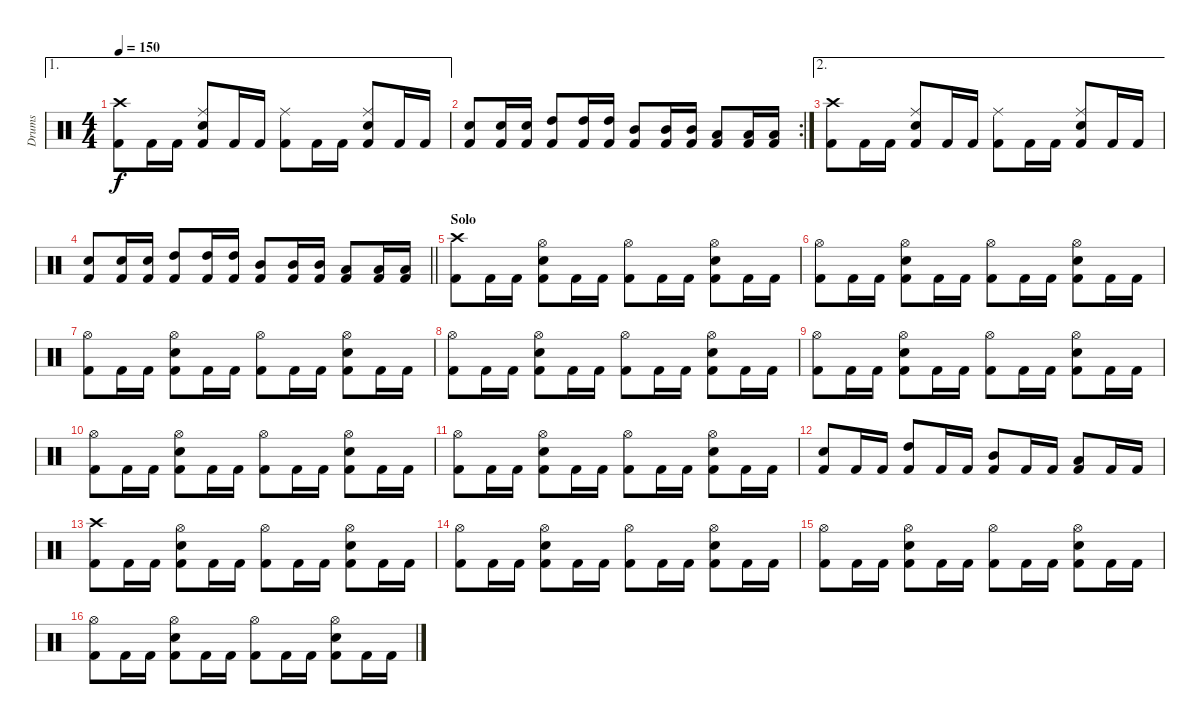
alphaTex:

\track ("Drums" "Drums") {instrument percussion}
\staff {score}
\articulation defaults
\ae 1
\ts (4 4)
\tempo 150
\clef neutral
\ks c
("Crash high (hit)" "Kick (hit) 2").8{dy f} "Kick (hit) 2".16 "Kick (hit) 2".16 ("Ride (middle)" "Snare (hit) 2" "Kick (hit) 2").8 "Kick (hit) 2".16 "Kick (hit) 2".16 ("Ride (middle)" "Kick (hit) 2").8 "Kick (hit) 2".16 "Kick (hit) 2".16 ("Ride (middle)" "Snare (hit) 2" "Kick (hit) 2").8 "Kick (hit) 2".16 "Kick (hit) 2".16 |
\rc 2
("Snare (hit) 2" "Kick (hit) 2").8 ("Snare (hit) 2" "Kick (hit) 2").16 ("Snare (hit) 2" "Kick (hit) 2").16 ("High Tom (hit)" "Kick (hit) 2").8 ("High Tom (hit)" "Kick (hit) 2").16 ("High Tom (hit)" "Kick (hit) 2").16 ("Mid Tom (hit)" "Kick (hit) 2").8 ("Mid Tom (hit)" "Kick (hit) 2").16 ("Mid Tom (hit)" "Kick (hit) 2").16 ("Low Tom (hit)" "Kick (hit) 2").8 ("Low Tom (hit)" "Kick (hit) 2").16 ("Low Tom (hit)" "Kick (hit) 2").16 |
\ae 2
("Crash high (hit)" "Kick (hit) 2").8 "Kick (hit) 2".16 "Kick (hit) 2".16 ("Ride (middle)" "Snare (hit) 2" "Kick (hit) 2").8 "Kick (hit) 2".16 "Kick (hit) 2".16 ("Ride (middle)" "Kick (hit) 2").8 "Kick (hit) 2".16 "Kick (hit) 2".16 ("Ride (middle)" "Snare (hit) 2" "Kick (hit) 2").8 "Kick (hit) 2".16 "Kick (hit) 2".16 |
\barLineRight lightlight
("Snare (hit) 2" "Kick (hit) 2").8 ("Snare (hit) 2" "Kick (hit) 2").16 ("Snare (hit) 2" "Kick (hit) 2").16 ("High Tom (hit)" "Kick (hit) 2").8 ("High Tom (hit)" "Kick (hit) 2").16 ("High Tom (hit)" "Kick (hit) 2").16 ("Mid Tom (hit)" "Kick (hit) 2").8 ("Mid Tom (hit)" "Kick (hit) 2").16 ("Mid Tom (hit)" "Kick (hit) 2").16 ("Low Tom (hit)" "Kick (hit) 2").8 ("Low Tom (hit)" "Kick (hit) 2").16 ("Low Tom (hit)" "Kick (hit) 2").16 |
\section ("" "Solo")
("Crash high (hit)" "Kick (hit) 2").8 "Kick (hit) 2".16 "Kick (hit) 2".16 ("Hi-Hat (open)" "Snare (hit) 2" "Kick (hit) 2").8 "Kick (hit) 2".16 "Kick (hit) 2".16 ("Hi-Hat (open)" "Kick (hit) 2").8 "Kick (hit) 2".16 "Kick (hit) 2".16 ("Hi-Hat (open)" "Snare (hit) 2" "Kick (hit) 2").8 "Kick (hit) 2".16 "Kick (hit) 2".16 |
("Hi-Hat (open)" "Kick (hit) 2").8 "Kick (hit) 2".16 "Kick (hit) 2".16 ("Hi-Hat (open)" "Snare (hit) 2" "Kick (hit) 2").8 "Kick (hit) 2".16 "Kick (hit) 2".16 ("Hi-Hat (open)" "Kick (hit) 2").8 "Kick (hit) 2".16 "Kick (hit) 2".16 ("Hi-Hat (open)" "Snare (hit) 2" "Kick (hit) 2").8 "Kick (hit) 2".16 "Kick (hit) 2".16 |
("Hi-Hat (open)" "Kick (hit) 2").8 "Kick (hit) 2".16 "Kick (hit) 2".16 ("Hi-Hat (open)" "Snare (hit) 2" "Kick (hit) 2").8 "Kick (hit) 2".16 "Kick (hit) 2".16 ("Hi-Hat (open)" "Kick (hit) 2").8 "Kick (hit) 2".16 "Kick (hit) 2".16 ("Hi-Hat (open)" "Snare (hit) 2" "Kick (hit) 2").8 "Kick (hit) 2".16 "Kick (hit) 2".16 |
("Hi-Hat (open)" "Kick (hit) 2").8 "Kick (hit) 2".16 "Kick (hit) 2".16 ("Hi-Hat (open)" "Snare (hit) 2" "Kick (hit) 2").8 "Kick (hit) 2".16 "Kick (hit) 2".16 ("Hi-Hat (open)" "Kick (hit) 2").8 "Kick (hit) 2".16 "Kick (hit) 2".16 ("Hi-Hat (open)" "Snare (hit) 2" "Kick (hit) 2").8 "Kick (hit) 2".16 "Kick (hit) 2".16 |
("Hi-Hat (open)" "Kick (hit) 2").8 "Kick (hit) 2".16 "Kick (hit) 2".16 ("Hi-Hat (open)" "Snare (hit) 2" "Kick (hit) 2").8 "Kick (hit) 2".16 "Kick (hit) 2".16 ("Hi-Hat (open)" "Kick (hit) 2").8 "Kick (hit) 2".16 "Kick (hit) 2".16 ("Hi-Hat (open)" "Snare (hit) 2" "Kick (hit) 2").8 "Kick (hit) 2".16 "Kick (hit) 2".16 |
("Hi-Hat (open)" "Kick (hit) 2").8 "Kick (hit) 2".16 "Kick (hit) 2".16 ("Hi-Hat (open)" "Snare (hit) 2" "Kick (hit) 2").8 "Kick (hit) 2".16 "Kick (hit) 2".16 ("Hi-Hat (open)" "Kick (hit) 2").8 "Kick (hit) 2".16 "Kick (hit) 2".16 ("Hi-Hat (open)" "Snare (hit) 2" "Kick (hit) 2").8 "Kick (hit) 2".16 "Kick (hit) 2".16 |
("Hi-Hat (open)" "Kick (hit) 2").8 "Kick (hit) 2".16 "Kick (hit) 2".16 ("Hi-Hat (open)" "Snare (hit) 2" "Kick (hit) 2").8 "Kick (hit) 2".16 "Kick (hit) 2".16 ("Hi-Hat (open)" "Kick (hit) 2").8 "Kick (hit) 2".16 "Kick (hit) 2".16 ("Hi-Hat (open)" "Snare (hit) 2" "Kick (hit) 2").8 "Kick (hit) 2".16 "Kick (hit) 2".16 |
("Snare (hit) 2" "Kick (hit) 2").8 "Kick (hit) 2".16 "Kick (hit) 2".16 ("High Tom (hit)" "Kick (hit) 2").8 "Kick (hit) 2".16 "Kick (hit) 2".16 ("Mid Tom (hit)" "Kick (hit) 2").8 "Kick (hit) 2".16 "Kick (hit) 2".16 ("Low Tom (hit)" "Kick (hit) 2").8 "Kick (hit) 2".16 "Kick (hit) 2".16 |
("Crash high (hit)" "Kick (hit) 2").8 "Kick (hit) 2".16 "Kick (hit) 2".16 ("Hi-Hat (open)" "Snare (hit) 2" "Kick (hit) 2").8 "Kick (hit) 2".16 "Kick (hit) 2".16 ("Hi-Hat (open)" "Kick (hit) 2").8 "Kick (hit) 2".16 "Kick (hit) 2".16 ("Hi-Hat (open)" "Snare (hit) 2" "Kick (hit) 2").8 "Kick (hit) 2".16 "Kick (hit) 2".16 |
("Hi-Hat (open)" "Kick (hit) 2").8 "Kick (hit) 2".16 "Kick (hit) 2".16 ("Hi-Hat (open)" "Snare (hit) 2" "Kick (hit) 2").8 "Kick (hit) 2".16 "Kick (hit) 2".16 ("Hi-Hat (open)" "Kick (hit) 2").8 "Kick (hit) 2".16 "Kick (hit) 2".16 ("Hi-Hat (open)" "Snare (hit) 2" "Kick (hit) 2").8 "Kick (hit) 2".16 "Kick (hit) 2".16 |
("Hi-Hat (open)" "Kick (hit) 2").8 "Kick (hit) 2".16 "Kick (hit) 2".16 ("Hi-Hat (open)" "Snare (hit) 2" "Kick (hit) 2").8 "Kick (hit) 2".16 "Kick (hit) 2".16 ("Hi-Hat (open)" "Kick (hit) 2").8 "Kick (hit) 2".16 "Kick (hit) 2".16 ("Hi-Hat (open)" "Snare (hit) 2" "Kick (hit) 2").8 "Kick (hit) 2".16 "Kick (hit) 2".16 |
("Hi-Hat (open)" "Kick (hit) 2").8 "Kick (hit) 2".16 "Kick (hit) 2".16 ("Hi-Hat (open)" "Snare (hit) 2" "Kick (hit) 2").8 "Kick (hit) 2".16 "Kick (hit) 2".16 ("Hi-Hat (open)" "Kick (hit) 2").8 "Kick (hit) 2".16 "Kick (hit) 2".16 ("Hi-Hat (open)" "Snare (hit) 2" "Kick (hit) 2").8 "Kick (hit) 2".16 "Kick (hit) 2".16
